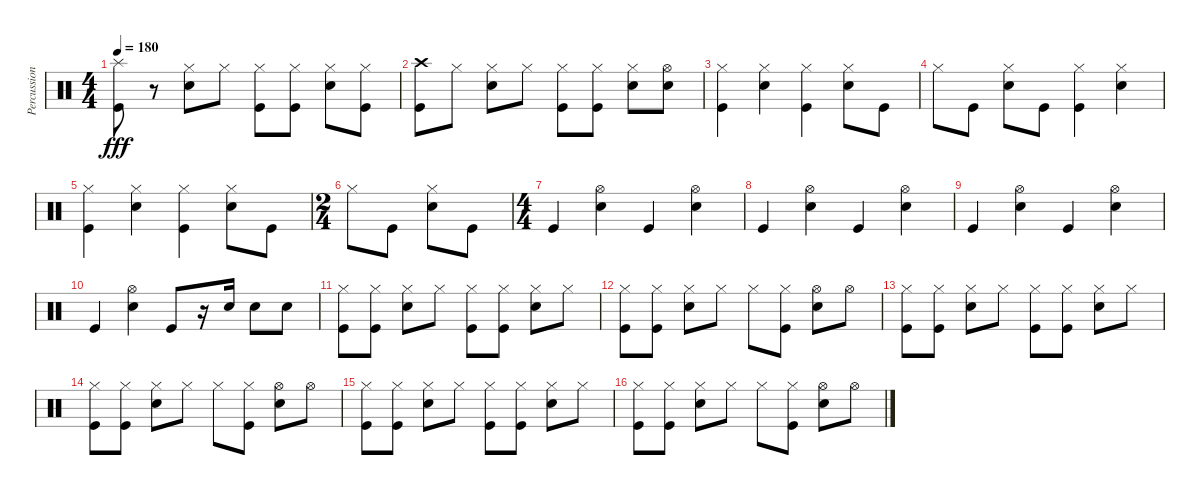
\track ("Percussion" "Percussion") {instrument percussion}
\staff {score}
\articulation defaults
\ts (4 4)
\tempo 180
\clef neutral
\ks c
("Splash (hit)" "Kick (hit)").8{dy fff} r.8 ("Hi-Hat (closed)" "Snare (hit) 2").8 "Hi-Hat (closed)".8 ("Hi-Hat (closed)" "Kick (hit)").8 ("Hi-Hat (closed)" "Kick (hit)").8 ("Hi-Hat (closed)" "Snare (hit) 2").8 ("Hi-Hat (closed)" "Kick (hit)").8 |
("Crash high (hit)" "Kick (hit)").8 "Hi-Hat (closed)".8 ("Hi-Hat (closed)" "Snare (hit) 2").8 "Hi-Hat (closed)".8 ("Hi-Hat (closed)" "Kick (hit)").8 ("Hi-Hat (closed)" "Kick (hit)").8 ("Hi-Hat (closed)" "Snare (hit) 2").8 ("Hi-Hat (open)" "Snare (hit) 2").8 |
("Hi-Hat (closed)" "Kick (hit)").4 ("Hi-Hat (closed)" "Snare (hit) 2").4 ("Hi-Hat (closed)" "Kick (hit)").4 ("Hi-Hat (closed)" "Snare (hit) 2").8 "Kick (hit)".8 |
"Hi-Hat (closed)".8 "Kick (hit)".8 ("Hi-Hat (closed)" "Snare (hit) 2").8 "Kick (hit)".8 ("Hi-Hat (closed)" "Kick (hit)").4 ("Hi-Hat (closed)" "Snare (hit) 2").4 |
("Hi-Hat (closed)" "Kick (hit)").4 ("Hi-Hat (closed)" "Snare (hit) 2").4 ("Hi-Hat (closed)" "Kick (hit)").4 ("Hi-Hat (closed)" "Snare (hit) 2").8 "Kick (hit)".8 |
\ts (2 4)
"Hi-Hat (closed)".8 "Kick (hit)".8 ("Hi-Hat (closed)" "Snare (hit) 2").8 "Kick (hit)".8 |
\ts (4 4)
"Kick (hit)".4 ("Hi-Hat (open)" "Snare (hit) 2").4 "Kick (hit)".4 ("Hi-Hat (open)" "Snare (hit) 2").4 |
"Kick (hit)".4 ("Hi-Hat (open)" "Snare (hit) 2").4 "Kick (hit)".4 ("Hi-Hat (open)" "Snare (hit) 2").4 |
"Kick (hit)".4 ("Hi-Hat (open)" "Snare (hit) 2").4 "Kick (hit)".4 ("Hi-Hat (open)" "Snare (hit) 2").4 |
"Kick (hit)".4 ("Hi-Hat (open)" "Snare (hit) 2").4 "Kick (hit)".8 r.16 "Snare (hit) 2".16 "Snare (hit) 2".8 "Snare (hit) 2".8 |
("Hi-Hat (closed)" "Kick (hit)").8 ("Hi-Hat (closed)" "Kick (hit)").8 ("Hi-Hat (closed)" "Snare (hit) 2").8 "Hi-Hat (closed)".8 ("Hi-Hat (closed)" "Kick (hit)").8 ("Hi-Hat (closed)" "Kick (hit)").8 ("Hi-Hat (closed)" "Snare (hit) 2").8 "Hi-Hat (closed)".8 |
("Hi-Hat (closed)" "Kick (hit)").8 ("Hi-Hat (closed)" "Kick (hit)").8 ("Hi-Hat (closed)" "Snare (hit) 2").8 "Hi-Hat (closed)".8 "Hi-Hat (closed)".8 ("Hi-Hat (closed)" "Kick (hit)").8 ("Hi-Hat (open)" "Snare (hit) 2").8 "Hi-Hat (open)".8 |
("Hi-Hat (closed)" "Kick (hit)").8 ("Hi-Hat (closed)" "Kick (hit)").8 ("Hi-Hat (closed)" "Snare (hit) 2").8 "Hi-Hat (closed)".8 ("Hi-Hat (closed)" "Kick (hit)").8 ("Hi-Hat (closed)" "Kick (hit)").8 ("Hi-Hat (closed)" "Snare (hit) 2").8 "Hi-Hat (closed)".8 |
("Hi-Hat (closed)" "Kick (hit)").8 ("Hi-Hat (closed)" "Kick (hit)").8 ("Hi-Hat (closed)" "Snare (hit) 2").8 "Hi-Hat (closed)".8 "Hi-Hat (closed)".8 ("Hi-Hat (closed)" "Kick (hit)").8 ("Hi-Hat (open)" "Snare (hit) 2").8 "Hi-Hat (open)".8 |
("Hi-Hat (closed)" "Kick (hit)").8 ("Hi-Hat (closed)" "Kick (hit)").8 ("Hi-Hat (closed)" "Snare (hit) 2").8 "Hi-Hat (closed)".8 ("Hi-Hat (closed)" "Kick (hit)").8 ("Hi-Hat (closed)" "Kick (hit)").8 ("Hi-Hat (closed)" "Snare (hit) 2").8 "Hi-Hat (closed)".8 |
("Hi-Hat (closed)" "Kick (hit)").8 ("Hi-Hat (closed)" "Kick (hit)").8 ("Hi-Hat (closed)" "Snare (hit) 2").8 "Hi-Hat (closed)".8 "Hi-Hat (closed)".8 ("Hi-Hat (closed)" "Kick (hit)").8 ("Hi-Hat (open)" "Snare (hit) 2").8 "Hi-Hat (open)".8
